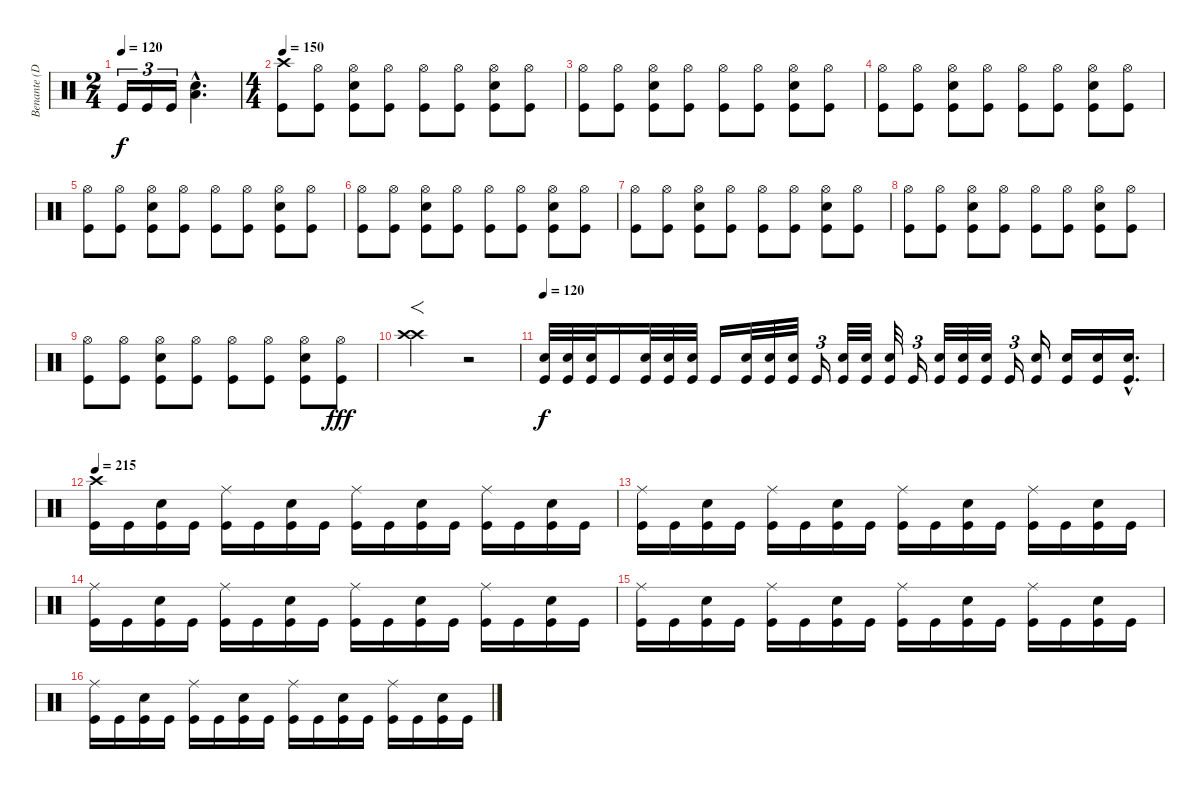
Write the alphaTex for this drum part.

\track ("Benante (Drums)" "Benante (D") {instrument percussion}
\staff {score}
\articulation defaults
\ts (2 4)
\tempo 120
\tempo 150
\tempo 120
\clef neutral
\ks c "Kick (hit)".16{tu (3 2) dy f} "Kick (hit)".16{tu (3 2)} "Kick (hit)".16{tu (3 2)}
("Low Tom (hit)"{hac} "Snare (hit) 2"{hac}).4{d} |
\ts (4 4)
\tempo 150
("Crash high (hit)" "Kick (hit)").8 ("Hi-Hat (open)" "Kick (hit)").8 ("Hi-Hat (open)" "Snare (hit) 2" "Kick (hit)").8 ("Hi-Hat (open)" "Kick (hit)").8 ("Hi-Hat (open)" "Kick (hit)").8 ("Hi-Hat (open)" "Kick (hit)").8 ("Hi-Hat (open)" "Snare (hit) 2" "Kick (hit)").8 ("Hi-Hat (open)" "Kick (hit)").8 |
("Hi-Hat (open)" "Kick (hit)").8 ("Hi-Hat (open)" "Kick (hit)").8 ("Hi-Hat (open)" "Snare (hit) 2" "Kick (hit)").8 ("Hi-Hat (open)" "Kick (hit)").8 ("Hi-Hat (open)" "Kick (hit)").8 ("Hi-Hat (open)" "Kick (hit)").8 ("Hi-Hat (open)" "Snare (hit) 2" "Kick (hit)").8 ("Hi-Hat (open)" "Kick (hit)").8 |
("Hi-Hat (open)" "Kick (hit)").8 ("Hi-Hat (open)" "Kick (hit)").8 ("Hi-Hat (open)" "Snare (hit) 2" "Kick (hit)").8 ("Hi-Hat (open)" "Kick (hit)").8 ("Hi-Hat (open)" "Kick (hit)").8 ("Hi-Hat (open)" "Kick (hit)").8 ("Hi-Hat (open)" "Snare (hit) 2" "Kick (hit)").8 ("Hi-Hat (open)" "Kick (hit)").8 |
("Hi-Hat (open)" "Kick (hit)").8 ("Hi-Hat (open)" "Kick (hit)").8 ("Hi-Hat (open)" "Snare (hit) 2" "Kick (hit)").8 ("Hi-Hat (open)" "Kick (hit)").8 ("Hi-Hat (open)" "Kick (hit)").8 ("Hi-Hat (open)" "Kick (hit)").8 ("Hi-Hat (open)" "Snare (hit) 2" "Kick (hit)").8 ("Hi-Hat (open)" "Kick (hit)").8 |
("Hi-Hat (open)" "Kick (hit)").8 ("Hi-Hat (open)" "Kick (hit)").8 ("Hi-Hat (open)" "Snare (hit) 2" "Kick (hit)").8 ("Hi-Hat (open)" "Kick (hit)").8 ("Hi-Hat (open)" "Kick (hit)").8 ("Hi-Hat (open)" "Kick (hit)").8 ("Hi-Hat (open)" "Snare (hit) 2" "Kick (hit)").8 ("Hi-Hat (open)" "Kick (hit)").8 |
("Hi-Hat (open)" "Kick (hit)").8 ("Hi-Hat (open)" "Kick (hit)").8 ("Hi-Hat (open)" "Snare (hit) 2" "Kick (hit)").8 ("Hi-Hat (open)" "Kick (hit)").8 ("Hi-Hat (open)" "Kick (hit)").8 ("Hi-Hat (open)" "Kick (hit)").8 ("Hi-Hat (open)" "Snare (hit) 2" "Kick (hit)").8 ("Hi-Hat (open)" "Kick (hit)").8 |
("Hi-Hat (open)" "Kick (hit)").8 ("Hi-Hat (open)" "Kick (hit)").8 ("Hi-Hat (open)" "Snare (hit) 2" "Kick (hit)").8 ("Hi-Hat (open)" "Kick (hit)").8 ("Hi-Hat (open)" "Kick (hit)").8 ("Hi-Hat (open)" "Kick (hit)").8 ("Hi-Hat (open)" "Snare (hit) 2" "Kick (hit)").8 ("Hi-Hat (open)" "Kick (hit)").8 |
("Hi-Hat (open)" "Kick (hit)").8 ("Hi-Hat (open)" "Kick (hit)").8 ("Hi-Hat (open)" "Snare (hit) 2" "Kick (hit)").8 ("Hi-Hat (open)" "Kick (hit)").8 ("Hi-Hat (open)" "Kick (hit)").8 ("Hi-Hat (open)" "Kick (hit)").8 ("Hi-Hat (open)" "Snare (hit) 2" "Kick (hit)").8 ("Hi-Hat (open)" "Kick (hit)").8{dy fff} |
("Crash high (hit)" "Crash high (hit)").2{f} r.2 |
\tempo 120
("Snare (hit) 2" "Kick (hit)").32{dy f} ("Snare (hit) 2" "Kick (hit)").32 ("Snare (hit) 2" "Kick (hit)").32 "Kick (hit)".16 ("Snare (hit) 2" "Kick (hit)").32 ("Snare (hit) 2" "Kick (hit)").32 ("Snare (hit) 2" "Kick (hit)").32 "Kick (hit)".16 ("Snare (hit) 2" "Kick (hit)").32 ("Snare (hit) 2" "Kick (hit)").32 ("Snare (hit) 2" "Kick (hit)").32 "Kick (hit)".16{tu (3 2)} ("Snare (hit) 2" "Kick (hit)").32 ("Snare (hit) 2" "Kick (hit)").32 ("Snare (hit) 2" "Kick (hit)").32 "Kick (hit)".16{tu (3 2)} ("Snare (hit) 2" "Kick (hit)").32 ("Snare (hit) 2" "Kick (hit)").32 ("Snare (hit) 2" "Kick (hit)").32 "Kick (hit)".16{tu (3 2)} ("Snare (hit) 2" "Kick (hit)").16 ("Snare (hit) 2" "Kick (hit)").16 ("Snare (hit) 2" "Kick (hit)").16 ("Snare (hit) 2"{hac} "Kick (hit)"{hac}).16{d} |
\tempo 215
("Crash high (hit)" "Kick (hit)").16 "Kick (hit)".16 ("Snare (hit) 2" "Kick (hit)").16 "Kick (hit)".16 ("Ride (middle)" "Kick (hit)").16 "Kick (hit)".16 ("Snare (hit) 2" "Kick (hit)").16 "Kick (hit)".16 ("Ride (middle)" "Kick (hit)").16 "Kick (hit)".16 ("Snare (hit) 2" "Kick (hit)").16 "Kick (hit)".16 ("Ride (middle)" "Kick (hit)").16 "Kick (hit)".16 ("Snare (hit) 2" "Kick (hit)").16 "Kick (hit)".16 |
("Ride (middle)" "Kick (hit)").16 "Kick (hit)".16 ("Snare (hit) 2" "Kick (hit)").16 "Kick (hit)".16 ("Ride (middle)" "Kick (hit)").16 "Kick (hit)".16 ("Snare (hit) 2" "Kick (hit)").16 "Kick (hit)".16 ("Ride (middle)" "Kick (hit)").16 "Kick (hit)".16 ("Snare (hit) 2" "Kick (hit)").16 "Kick (hit)".16 ("Ride (middle)" "Kick (hit)").16 "Kick (hit)".16 ("Snare (hit) 2" "Kick (hit)").16 "Kick (hit)".16 |
("Ride (middle)" "Kick (hit)").16 "Kick (hit)".16 ("Snare (hit) 2" "Kick (hit)").16 "Kick (hit)".16 ("Ride (middle)" "Kick (hit)").16 "Kick (hit)".16 ("Snare (hit) 2" "Kick (hit)").16 "Kick (hit)".16 ("Ride (middle)" "Kick (hit)").16 "Kick (hit)".16 ("Snare (hit) 2" "Kick (hit)").16 "Kick (hit)".16 ("Ride (middle)" "Kick (hit)").16 "Kick (hit)".16 ("Snare (hit) 2" "Kick (hit)").16 "Kick (hit)".16 |
("Ride (middle)" "Kick (hit)").16 "Kick (hit)".16 ("Snare (hit) 2" "Kick (hit)").16 "Kick (hit)".16 ("Ride (middle)" "Kick (hit)").16 "Kick (hit)".16 ("Snare (hit) 2" "Kick (hit)").16 "Kick (hit)".16 ("Ride (middle)" "Kick (hit)").16 "Kick (hit)".16 ("Snare (hit) 2" "Kick (hit)").16 "Kick (hit)".16 ("Ride (middle)" "Kick (hit)").16 "Kick (hit)".16 ("Snare (hit) 2" "Kick (hit)").16 "Kick (hit)".16 |
("Ride (middle)" "Kick (hit)").16 "Kick (hit)".16 ("Snare (hit) 2" "Kick (hit)").16 "Kick (hit)".16 ("Ride (middle)" "Kick (hit)").16 "Kick (hit)".16 ("Snare (hit) 2" "Kick (hit)").16 "Kick (hit)".16 ("Ride (middle)" "Kick (hit)").16 "Kick (hit)".16 ("Snare (hit) 2" "Kick (hit)").16 "Kick (hit)".16 ("Ride (middle)" "Kick (hit)").16 "Kick (hit)".16 ("Snare (hit) 2" "Kick (hit)").16 "Kick (hit)".16
